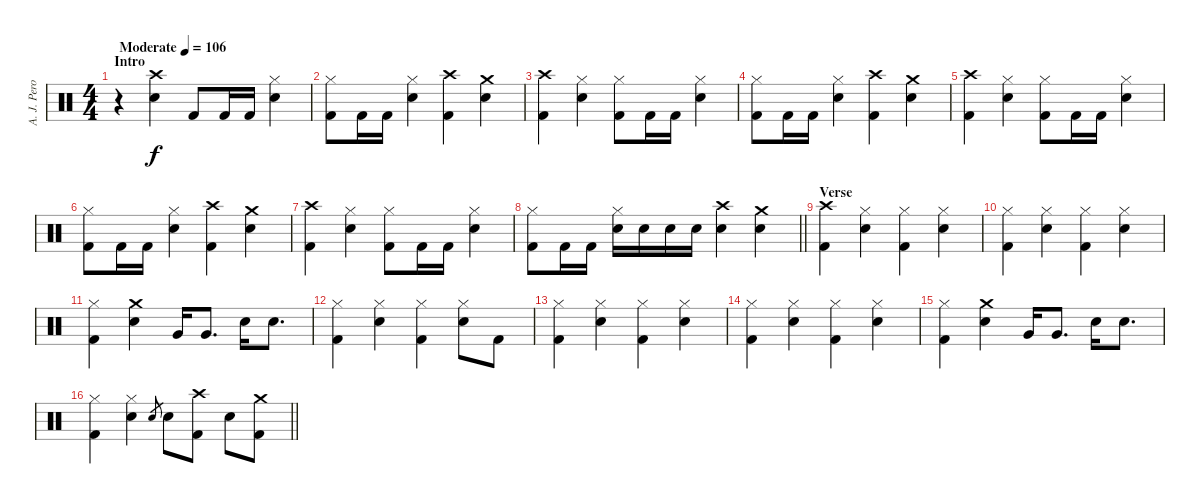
\track ("A. J. Pero" "A. J. Pero") {instrument percussion}
\staff {score}
\articulation defaults
\ts (4 4)
\section ("" "Intro")
\tempo (106 "Moderate")
\clef neutral
\ks c
r.4{dy f} ("Crash high (hit)" "Snare (hit) 2").4 "Kick (hit) 2".8 "Kick (hit) 2".16 "Kick (hit) 2".16 ("Hi-Hat (closed)" "Snare (hit) 2").4 |
("Hi-Hat (closed)" "Kick (hit) 2").8 "Kick (hit) 2".16 "Kick (hit) 2".16 ("Hi-Hat (closed)" "Snare (hit) 2").4 ("Crash high (hit)" "Kick (hit) 2").4 ("Crash medium (hit)" "Snare (hit) 2").4 |
("Crash high (hit)" "Kick (hit) 2").4 ("Hi-Hat (closed)" "Snare (hit) 2").4 ("Hi-Hat (closed)" "Kick (hit) 2").8 "Kick (hit) 2".16 "Kick (hit) 2".16 ("Hi-Hat (closed)" "Snare (hit) 2").4 |
("Hi-Hat (closed)" "Kick (hit) 2").8 "Kick (hit) 2".16 "Kick (hit) 2".16 ("Hi-Hat (closed)" "Snare (hit) 2").4 ("Crash high (hit)" "Kick (hit) 2").4 ("Crash medium (hit)" "Snare (hit) 2").4 |
("Crash high (hit)" "Kick (hit) 2").4 ("Hi-Hat (closed)" "Snare (hit) 2").4 ("Hi-Hat (closed)" "Kick (hit) 2").8 "Kick (hit) 2".16 "Kick (hit) 2".16 ("Hi-Hat (closed)" "Snare (hit) 2").4 |
("Hi-Hat (closed)" "Kick (hit) 2").8 "Kick (hit) 2".16 "Kick (hit) 2".16 ("Hi-Hat (closed)" "Snare (hit) 2").4 ("Crash high (hit)" "Kick (hit) 2").4 ("Crash medium (hit)" "Snare (hit) 2").4 |
("Crash high (hit)" "Kick (hit) 2").4 ("Hi-Hat (closed)" "Snare (hit) 2").4 ("Hi-Hat (closed)" "Kick (hit) 2").8 "Kick (hit) 2".16 "Kick (hit) 2".16 ("Hi-Hat (closed)" "Snare (hit) 2").4 |
\barLineRight lightlight
("Hi-Hat (closed)" "Kick (hit) 2").8 "Kick (hit) 2".16 "Kick (hit) 2".16 ("Hi-Hat (closed)" "Snare (hit) 2").16 "Snare (hit) 2".16 "Snare (hit) 2".16 "Snare (hit) 2".16 ("Crash high (hit)" "Snare (hit) 2").4 ("Crash medium (hit)" "Snare (hit) 2").4 |
\section ("" "Verse")
("Crash high (hit)" "Kick (hit) 2").4 ("Hi-Hat (closed)" "Snare (hit) 2").4 ("Hi-Hat (closed)" "Kick (hit) 2").4 ("Hi-Hat (closed)" "Snare (hit) 2").4 |
("Hi-Hat (closed)" "Kick (hit) 2").4 ("Hi-Hat (closed)" "Snare (hit) 2").4 ("Hi-Hat (closed)" "Kick (hit) 2").4 ("Hi-Hat (closed)" "Snare (hit) 2").4 |
("Hi-Hat (closed)" "Kick (hit) 2").4 ("Crash medium (hit)" "Snare (hit) 2").4 "Very Low Tom (hit)".16 "Very Low Tom (hit)".8{d} "Snare (hit) 2".16 "Snare (hit) 2".8{d} |
("Hi-Hat (closed)" "Kick (hit) 2").4 ("Hi-Hat (closed)" "Snare (hit) 2").4 ("Hi-Hat (closed)" "Kick (hit) 2").4 ("Hi-Hat (closed)" "Snare (hit) 2").8 "Kick (hit) 2".8 |
("Hi-Hat (closed)" "Kick (hit) 2").4 ("Hi-Hat (closed)" "Snare (hit) 2").4 ("Hi-Hat (closed)" "Kick (hit) 2").4 ("Hi-Hat (closed)" "Snare (hit) 2").4 |
("Hi-Hat (closed)" "Kick (hit) 2").4 ("Hi-Hat (closed)" "Snare (hit) 2").4 ("Hi-Hat (closed)" "Kick (hit) 2").4 ("Hi-Hat (closed)" "Snare (hit) 2").4 |
("Hi-Hat (closed)" "Kick (hit) 2").4 ("Crash medium (hit)" "Snare (hit) 2").4 "Very Low Tom (hit)".16 "Very Low Tom (hit)".8{d} "Snare (hit) 2".16 "Snare (hit) 2".8{d} |
\barLineRight lightlight
("Hi-Hat (closed)" "Kick (hit) 2").4 ("Hi-Hat (closed)" "Snare (hit) 2").4 "Snare (hit) 2".8{gr} "Snare (hit) 2".8 ("Crash high (hit)" "Kick (hit) 2").8 "Snare (hit) 2".8 ("Crash medium (hit)" "Kick (hit) 2").8
